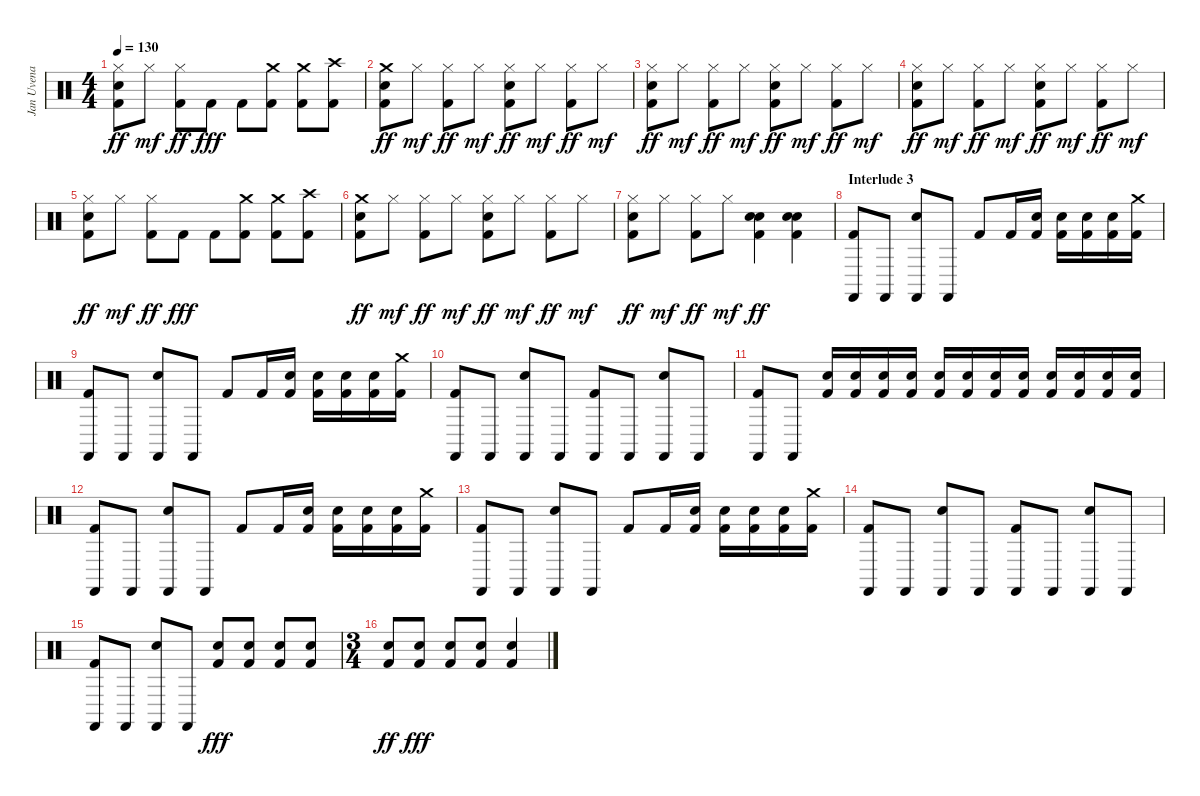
\track ("Jan Uvena" "Jan Uvena") {instrument percussion}
\staff {score}
\articulation defaults
\ts (4 4)
\tempo 130
\clef neutral
\ks c
("Hi-Hat (closed)" "Snare (hit) 2" "Kick (hit) 2").8{dy ff} "Hi-Hat (closed)".8{dy mf} ("Hi-Hat (closed)" "Kick (hit) 2").8{dy ff} "Kick (hit) 2".8{dy fff} "Kick (hit) 2".8 ("Crash medium (hit)" "Kick (hit) 2").8 ("Crash medium (hit)" "Kick (hit) 2").8 ("Crash high (hit)" "Kick (hit) 2").8 |
("Crash medium (hit)" "Snare (hit) 2" "Kick (hit) 2").8{dy ff} "Hi-Hat (closed)".8{dy mf} ("Hi-Hat (closed)" "Kick (hit) 2").8{dy ff} "Hi-Hat (closed)".8{dy mf} ("Hi-Hat (closed)" "Snare (hit) 2" "Kick (hit) 2").8{dy ff} "Hi-Hat (closed)".8{dy mf} ("Hi-Hat (closed)" "Kick (hit) 2").8{dy ff} "Hi-Hat (closed)".8{dy mf} |
("Hi-Hat (closed)" "Snare (hit) 2" "Kick (hit) 2").8{dy ff} "Hi-Hat (closed)".8{dy mf} ("Hi-Hat (closed)" "Kick (hit) 2").8{dy ff} "Hi-Hat (closed)".8{dy mf} ("Hi-Hat (closed)" "Snare (hit) 2" "Kick (hit) 2").8{dy ff} "Hi-Hat (closed)".8{dy mf} ("Hi-Hat (closed)" "Kick (hit) 2").8{dy ff} "Hi-Hat (closed)".8{dy mf} |
("Hi-Hat (closed)" "Snare (hit) 2" "Kick (hit) 2").8{dy ff} "Hi-Hat (closed)".8{dy mf} ("Hi-Hat (closed)" "Kick (hit) 2").8{dy ff} "Hi-Hat (closed)".8{dy mf} ("Hi-Hat (closed)" "Snare (hit) 2" "Kick (hit) 2").8{dy ff} "Hi-Hat (closed)".8{dy mf} ("Hi-Hat (closed)" "Kick (hit) 2").8{dy ff} "Hi-Hat (closed)".8{dy mf} |
("Hi-Hat (closed)" "Snare (hit) 2" "Kick (hit) 2").8{dy ff} "Hi-Hat (closed)".8{dy mf} ("Hi-Hat (closed)" "Kick (hit) 2").8{dy ff} "Kick (hit) 2".8{dy fff} "Kick (hit) 2".8 ("Crash medium (hit)" "Kick (hit) 2").8 ("Crash medium (hit)" "Kick (hit) 2").8 ("Crash high (hit)" "Kick (hit) 2").8 |
("Crash medium (hit)" "Snare (hit) 2" "Kick (hit) 2").8{dy ff} "Hi-Hat (closed)".8{dy mf} ("Hi-Hat (closed)" "Kick (hit) 2").8{dy ff} "Hi-Hat (closed)".8{dy mf} ("Hi-Hat (closed)" "Snare (hit) 2" "Kick (hit) 2").8{dy ff} "Hi-Hat (closed)".8{dy mf} ("Hi-Hat (closed)" "Kick (hit) 2").8{dy ff} "Hi-Hat (closed)".8{dy mf} |
("Hi-Hat (closed)" "Snare (hit) 2" "Kick (hit) 2").8{dy ff} "Hi-Hat (closed)".8{dy mf} ("Hi-Hat (closed)" "Kick (hit) 2").8{dy ff} "Hi-Hat (closed)".8{dy mf} ("Electric Snare (hit)" "Snare (hit) 2" "Kick (hit) 2").4{dy ff} ("Electric Snare (hit)" "Snare (hit) 2" "Kick (hit) 2").4 |
\section ("" "Interlude 3")
("Castanets (hit)" "Kick (hit) 2").8 "Castanets (hit)".8 ("Castanets (hit)" "Snare (hit) 2").8 "Castanets (hit)".8 "Kick (hit) 2".8 "Kick (hit) 2".16 ("Snare (hit) 2" "Kick (hit) 2").16 ("Snare (hit) 2" "Kick (hit) 2").16 ("Snare (hit) 2" "Kick (hit) 2").16 ("Snare (hit) 2" "Kick (hit) 2").16 ("Crash medium (hit)" "Kick (hit) 2").16 |
("Castanets (hit)" "Kick (hit) 2").8 "Castanets (hit)".8 ("Castanets (hit)" "Snare (hit) 2").8 "Castanets (hit)".8 "Kick (hit) 2".8 "Kick (hit) 2".16 ("Snare (hit) 2" "Kick (hit) 2").16 ("Snare (hit) 2" "Kick (hit) 2").16 ("Snare (hit) 2" "Kick (hit) 2").16 ("Snare (hit) 2" "Kick (hit) 2").16 ("Crash medium (hit)" "Kick (hit) 2").16 |
("Castanets (hit)" "Kick (hit) 2").8 "Castanets (hit)".8 ("Castanets (hit)" "Snare (hit) 2").8 "Castanets (hit)".8 ("Castanets (hit)" "Kick (hit) 2").8 "Castanets (hit)".8 ("Castanets (hit)" "Snare (hit) 2").8 "Castanets (hit)".8 |
("Castanets (hit)" "Kick (hit) 2").8 "Castanets (hit)".8 ("Snare (hit) 2" "Kick (hit) 2").16 ("Snare (hit) 2" "Kick (hit) 2").16 ("Snare (hit) 2" "Kick (hit) 2").16 ("Snare (hit) 2" "Kick (hit) 2").16 ("Snare (hit) 2" "Kick (hit) 2").16 ("Snare (hit) 2" "Kick (hit) 2").16 ("Snare (hit) 2" "Kick (hit) 2").16 ("Snare (hit) 2" "Kick (hit) 2").16 ("Snare (hit) 2" "Kick (hit) 2").16 ("Snare (hit) 2" "Kick (hit) 2").16 ("Snare (hit) 2" "Kick (hit) 2").16 ("Snare (hit) 2" "Kick (hit) 2").16 |
("Castanets (hit)" "Kick (hit) 2").8 "Castanets (hit)".8 ("Castanets (hit)" "Snare (hit) 2").8 "Castanets (hit)".8 "Kick (hit) 2".8 "Kick (hit) 2".16 ("Snare (hit) 2" "Kick (hit) 2").16 ("Snare (hit) 2" "Kick (hit) 2").16 ("Snare (hit) 2" "Kick (hit) 2").16 ("Snare (hit) 2" "Kick (hit) 2").16 ("Crash medium (hit)" "Kick (hit) 2").16 |
("Castanets (hit)" "Kick (hit) 2").8 "Castanets (hit)".8 ("Castanets (hit)" "Snare (hit) 2").8 "Castanets (hit)".8 "Kick (hit) 2".8 "Kick (hit) 2".16 ("Snare (hit) 2" "Kick (hit) 2").16 ("Snare (hit) 2" "Kick (hit) 2").16 ("Snare (hit) 2" "Kick (hit) 2").16 ("Snare (hit) 2" "Kick (hit) 2").16 ("Crash medium (hit)" "Kick (hit) 2").16 |
("Castanets (hit)" "Kick (hit) 2").8 "Castanets (hit)".8 ("Castanets (hit)" "Snare (hit) 2").8 "Castanets (hit)".8 ("Castanets (hit)" "Kick (hit) 2").8 "Castanets (hit)".8 ("Castanets (hit)" "Snare (hit) 2").8 "Castanets (hit)".8 |
("Castanets (hit)" "Kick (hit) 2").8 "Castanets (hit)".8 ("Castanets (hit)" "Snare (hit) 2").8 "Castanets (hit)".8 ("Snare (hit) 2" "Kick (hit) 2").8{dy fff} ("Snare (hit) 2" "Kick (hit) 2").8 ("Snare (hit) 2" "Kick (hit) 2").8 ("Snare (hit) 2" "Kick (hit) 2").8 |
\ts (3 4)
("Snare (hit) 2" "Kick (hit) 2").8{dy ff} ("Snare (hit) 2" "Kick (hit) 2").8{dy fff} ("Snare (hit) 2" "Kick (hit) 2").8 ("Snare (hit) 2" "Kick (hit) 2").8 ("Snare (hit) 2" "Kick (hit) 2").4
